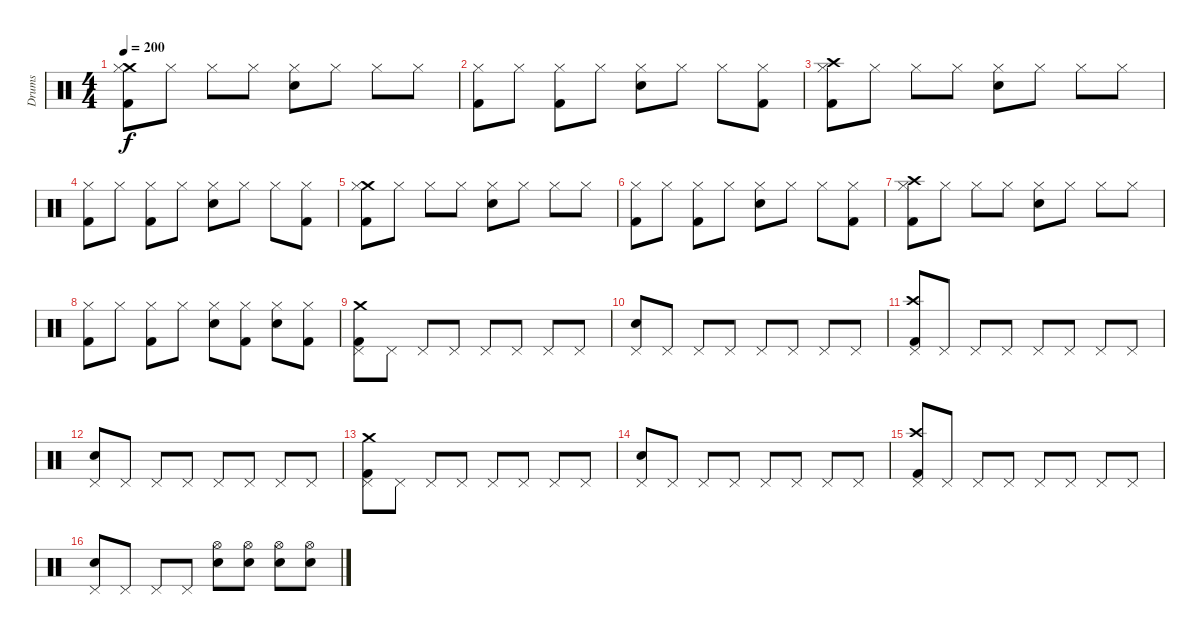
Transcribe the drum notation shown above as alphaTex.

\track ("Drums" "Drums") {instrument percussion}
\staff {score}
\articulation defaults
\ts (4 4)
\tempo 200
\clef neutral
\ks c
("Crash medium (hit)" "Hi-Hat (closed)" "Kick (hit) 2").8{dy f} "Hi-Hat (closed)".8 "Hi-Hat (closed)".8 "Hi-Hat (closed)".8 ("Hi-Hat (closed)" "Electric Snare (hit)").8 "Hi-Hat (closed)".8 "Hi-Hat (closed)".8 "Hi-Hat (closed)".8 |
("Hi-Hat (closed)" "Kick (hit) 2").8 "Hi-Hat (closed)".8 ("Hi-Hat (closed)" "Kick (hit) 2").8 "Hi-Hat (closed)".8 ("Hi-Hat (closed)" "Electric Snare (hit)").8 "Hi-Hat (closed)".8 "Hi-Hat (closed)".8 ("Hi-Hat (closed)" "Kick (hit) 2").8 |
("Crash high (hit)" "Hi-Hat (closed)" "Kick (hit) 2").8 "Hi-Hat (closed)".8 "Hi-Hat (closed)".8 "Hi-Hat (closed)".8 ("Hi-Hat (closed)" "Electric Snare (hit)").8 "Hi-Hat (closed)".8 "Hi-Hat (closed)".8 "Hi-Hat (closed)".8 |
("Hi-Hat (closed)" "Kick (hit) 2").8 "Hi-Hat (closed)".8 ("Hi-Hat (closed)" "Kick (hit) 2").8 "Hi-Hat (closed)".8 ("Hi-Hat (closed)" "Electric Snare (hit)").8 "Hi-Hat (closed)".8 "Hi-Hat (closed)".8 ("Hi-Hat (closed)" "Kick (hit) 2").8 |
("Crash medium (hit)" "Hi-Hat (closed)" "Kick (hit) 2").8 "Hi-Hat (closed)".8 "Hi-Hat (closed)".8 "Hi-Hat (closed)".8 ("Hi-Hat (closed)" "Electric Snare (hit)").8 "Hi-Hat (closed)".8 "Hi-Hat (closed)".8 "Hi-Hat (closed)".8 |
("Hi-Hat (closed)" "Kick (hit) 2").8 "Hi-Hat (closed)".8 ("Hi-Hat (closed)" "Kick (hit) 2").8 "Hi-Hat (closed)".8 ("Hi-Hat (closed)" "Electric Snare (hit)").8 "Hi-Hat (closed)".8 "Hi-Hat (closed)".8 ("Hi-Hat (closed)" "Kick (hit) 2").8 |
("Crash high (hit)" "Hi-Hat (closed)" "Kick (hit) 2").8 "Hi-Hat (closed)".8 "Hi-Hat (closed)".8 "Hi-Hat (closed)".8 ("Hi-Hat (closed)" "Electric Snare (hit)").8 "Hi-Hat (closed)".8 "Hi-Hat (closed)".8 "Hi-Hat (closed)".8 |
("Hi-Hat (closed)" "Kick (hit) 2").8 "Hi-Hat (closed)".8 ("Hi-Hat (closed)" "Kick (hit) 2").8 "Hi-Hat (closed)".8 ("Hi-Hat (closed)" "Electric Snare (hit)").8 ("Hi-Hat (closed)" "Kick (hit) 2").8 ("Hi-Hat (closed)" "Electric Snare (hit)").8 ("Hi-Hat (closed)" "Kick (hit) 2").8 |
("Crash medium (hit)" "Pedal Hi-Hat (hit)" "Kick (hit) 2").8 "Pedal Hi-Hat (hit)".8 "Pedal Hi-Hat (hit)".8 "Pedal Hi-Hat (hit)".8 "Pedal Hi-Hat (hit)".8 "Pedal Hi-Hat (hit)".8 "Pedal Hi-Hat (hit)".8 "Pedal Hi-Hat (hit)".8 |
("Pedal Hi-Hat (hit)" "Electric Snare (hit)").8 "Pedal Hi-Hat (hit)".8 "Pedal Hi-Hat (hit)".8 "Pedal Hi-Hat (hit)".8 "Pedal Hi-Hat (hit)".8 "Pedal Hi-Hat (hit)".8 "Pedal Hi-Hat (hit)".8 "Pedal Hi-Hat (hit)".8 |
("Crash high (hit)" "Pedal Hi-Hat (hit)" "Kick (hit) 2").8 "Pedal Hi-Hat (hit)".8 "Pedal Hi-Hat (hit)".8 "Pedal Hi-Hat (hit)".8 "Pedal Hi-Hat (hit)".8 "Pedal Hi-Hat (hit)".8 "Pedal Hi-Hat (hit)".8 "Pedal Hi-Hat (hit)".8 |
("Pedal Hi-Hat (hit)" "Electric Snare (hit)").8 "Pedal Hi-Hat (hit)".8 "Pedal Hi-Hat (hit)".8 "Pedal Hi-Hat (hit)".8 "Pedal Hi-Hat (hit)".8 "Pedal Hi-Hat (hit)".8 "Pedal Hi-Hat (hit)".8 "Pedal Hi-Hat (hit)".8 |
("Crash medium (hit)" "Pedal Hi-Hat (hit)" "Kick (hit) 2").8 "Pedal Hi-Hat (hit)".8 "Pedal Hi-Hat (hit)".8 "Pedal Hi-Hat (hit)".8 "Pedal Hi-Hat (hit)".8 "Pedal Hi-Hat (hit)".8 "Pedal Hi-Hat (hit)".8 "Pedal Hi-Hat (hit)".8 |
("Pedal Hi-Hat (hit)" "Electric Snare (hit)").8 "Pedal Hi-Hat (hit)".8 "Pedal Hi-Hat (hit)".8 "Pedal Hi-Hat (hit)".8 "Pedal Hi-Hat (hit)".8 "Pedal Hi-Hat (hit)".8 "Pedal Hi-Hat (hit)".8 "Pedal Hi-Hat (hit)".8 |
("Crash high (hit)" "Pedal Hi-Hat (hit)" "Kick (hit) 2").8 "Pedal Hi-Hat (hit)".8 "Pedal Hi-Hat (hit)".8 "Pedal Hi-Hat (hit)".8 "Pedal Hi-Hat (hit)".8 "Pedal Hi-Hat (hit)".8 "Pedal Hi-Hat (hit)".8 "Pedal Hi-Hat (hit)".8 |
("Pedal Hi-Hat (hit)" "Electric Snare (hit)").8 "Pedal Hi-Hat (hit)".8 "Pedal Hi-Hat (hit)".8 "Pedal Hi-Hat (hit)".8 ("Hi-Hat (open)" "Electric Snare (hit)").8 ("Hi-Hat (open)" "Electric Snare (hit)").8 ("Hi-Hat (open)" "Electric Snare (hit)").8 ("Hi-Hat (open)" "Electric Snare (hit)").8
